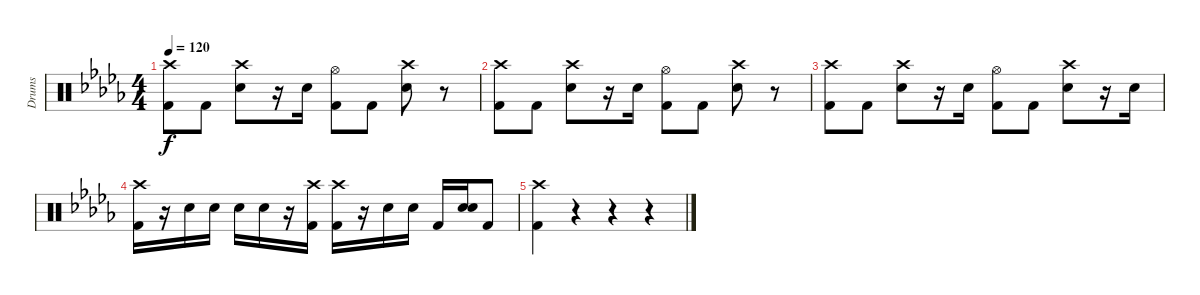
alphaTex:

\track ("Drums" "Drums") {instrument percussion}
\staff {score}
\articulation defaults
\ts (4 4)
\tempo 120
\clef neutral
\ks db
("Crash high (hit)" "Kick (hit) 2").8{dy f} "Kick (hit) 2".8 ("Crash high (hit)" "Snare (hit) 2").8 r.16 "Snare (hit) 2".16 ("Hi-Hat (open)" "Kick (hit) 2").8 "Kick (hit) 2".8 ("Crash high (hit)" "Snare (hit) 2").8 r.8 |
("Crash high (hit)" "Kick (hit) 2").8 "Kick (hit) 2".8 ("Crash high (hit)" "Snare (hit) 2").8 r.16 "Snare (hit) 2".16 ("Hi-Hat (open)" "Kick (hit) 2").8 "Kick (hit) 2".8 ("Crash high (hit)" "Snare (hit) 2").8 r.8 |
("Crash high (hit)" "Kick (hit) 2").8 "Kick (hit) 2".8 ("Crash high (hit)" "Snare (hit) 2").8 r.16 "Snare (hit) 2".16 ("Hi-Hat (open)" "Kick (hit) 2").8 "Kick (hit) 2".8 ("Crash high (hit)" "Snare (hit) 2").8 r.16 "Snare (hit) 2".16 |
("Crash high (hit)" "Kick (hit) 2").16 r.16 "Snare (hit) 2".16 "Snare (hit) 2".16 "Snare (hit) 2".16 "Snare (hit) 2".16 r.16 ("Crash high (hit)" "Kick (hit) 2").16 ("Crash high (hit)" "Kick (hit) 2").16 r.16 "Snare (hit) 2".16 "Snare (hit) 2".16 "Kick (hit) 2".16 ("Snare (hit) 2" "Snare (hit) 2").16 "Kick (hit) 2".8 |
("Crash high (hit)" "Kick (hit) 2").4 r.4 r.4 r.4
